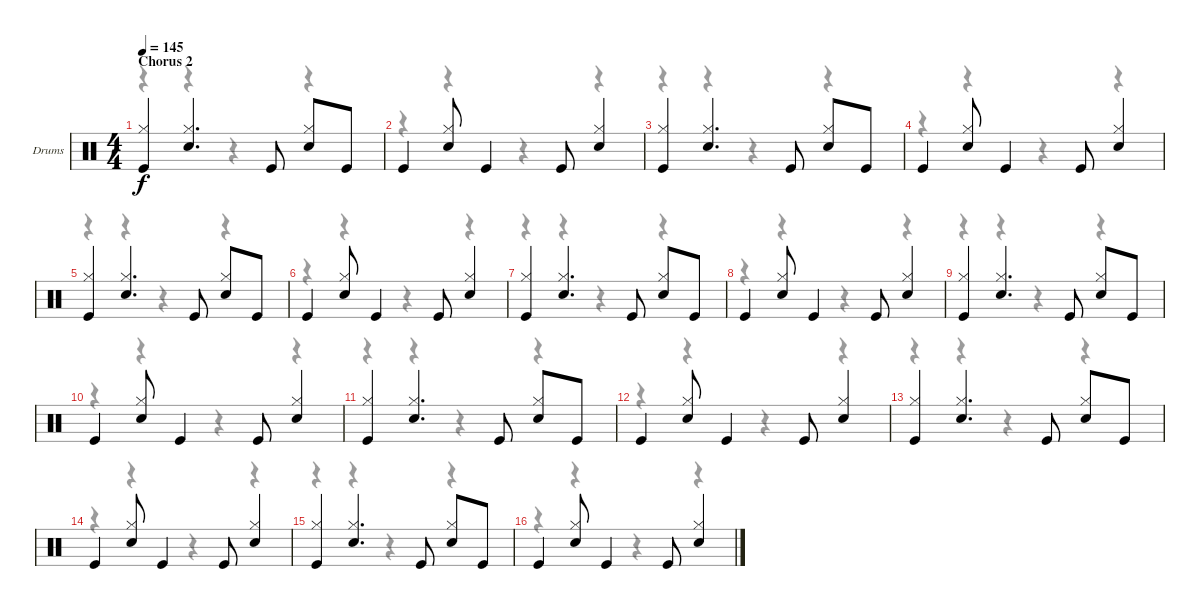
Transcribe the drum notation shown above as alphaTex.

\bracketExtendMode groupsimilarinstruments
\firstSystemTrackNameOrientation horizontal
\otherSystemsTrackNameOrientation horizontal
\track ("Drumkit" "Drums") {solo instrument percussion}
\staff {score}
\articulation defaults
\voice
\ts (4 4)
\section ("" "Chorus 2")
\tempo 145
\clef neutral
\ks c
("Kick (hit)" "Hi-Hat (closed)").4{dy f} ("Snare (hit) 2" "Hi-Hat (closed)").4{d} "Kick (hit)".8 ("Snare (hit) 2" "Hi-Hat (closed)").8 "Kick (hit)".8 |
"Kick (hit)".4 ("Snare (hit) 2" "Hi-Hat (closed)").8 "Kick (hit)".4 "Kick (hit)".8 ("Snare (hit) 2" "Hi-Hat (closed)").4 |
("Kick (hit)" "Hi-Hat (closed)").4 ("Snare (hit) 2" "Hi-Hat (closed)").4{d} "Kick (hit)".8 ("Snare (hit) 2" "Hi-Hat (closed)").8 "Kick (hit)".8 |
"Kick (hit)".4 ("Snare (hit) 2" "Hi-Hat (closed)").8 "Kick (hit)".4 "Kick (hit)".8 ("Snare (hit) 2" "Hi-Hat (closed)").4 |
("Kick (hit)" "Hi-Hat (closed)").4 ("Snare (hit) 2" "Hi-Hat (closed)").4{d} "Kick (hit)".8 ("Snare (hit) 2" "Hi-Hat (closed)").8 "Kick (hit)".8 |
"Kick (hit)".4 ("Snare (hit) 2" "Hi-Hat (closed)").8 "Kick (hit)".4 "Kick (hit)".8 ("Snare (hit) 2" "Hi-Hat (closed)").4 |
("Kick (hit)" "Hi-Hat (closed)").4 ("Snare (hit) 2" "Hi-Hat (closed)").4{d} "Kick (hit)".8 ("Snare (hit) 2" "Hi-Hat (closed)").8 "Kick (hit)".8 |
"Kick (hit)".4 ("Snare (hit) 2" "Hi-Hat (closed)").8 "Kick (hit)".4 "Kick (hit)".8 ("Snare (hit) 2" "Hi-Hat (closed)").4 |
("Kick (hit)" "Hi-Hat (closed)").4 ("Snare (hit) 2" "Hi-Hat (closed)").4{d} "Kick (hit)".8 ("Snare (hit) 2" "Hi-Hat (closed)").8 "Kick (hit)".8 |
"Kick (hit)".4 ("Snare (hit) 2" "Hi-Hat (closed)").8 "Kick (hit)".4 "Kick (hit)".8 ("Snare (hit) 2" "Hi-Hat (closed)").4 |
("Kick (hit)" "Hi-Hat (closed)").4 ("Snare (hit) 2" "Hi-Hat (closed)").4{d} "Kick (hit)".8 ("Snare (hit) 2" "Hi-Hat (closed)").8 "Kick (hit)".8 |
"Kick (hit)".4 ("Snare (hit) 2" "Hi-Hat (closed)").8 "Kick (hit)".4 "Kick (hit)".8 ("Snare (hit) 2" "Hi-Hat (closed)").4 |
("Kick (hit)" "Hi-Hat (closed)").4 ("Snare (hit) 2" "Hi-Hat (closed)").4{d} "Kick (hit)".8 ("Snare (hit) 2" "Hi-Hat (closed)").8 "Kick (hit)".8 |
"Kick (hit)".4 ("Snare (hit) 2" "Hi-Hat (closed)").8 "Kick (hit)".4 "Kick (hit)".8 ("Snare (hit) 2" "Hi-Hat (closed)").4 |
("Kick (hit)" "Hi-Hat (closed)").4 ("Snare (hit) 2" "Hi-Hat (closed)").4{d} "Kick (hit)".8 ("Snare (hit) 2" "Hi-Hat (closed)").8 "Kick (hit)".8 |
"Kick (hit)".4 ("Snare (hit) 2" "Hi-Hat (closed)").8 "Kick (hit)".4 "Kick (hit)".8 ("Snare (hit) 2" "Hi-Hat (closed)").4
\voice
\clef neutral
\ottava regular
\simile none
\ks c
r.4{dy mf} r.4 r.4 r.4 |
r.4 r.4 r.4 r.4 |
r.4 r.4 r.4 r.4 |
r.4 r.4 r.4 r.4 |
r.4 r.4 r.4 r.4 |
r.4 r.4 r.4 r.4 |
r.4 r.4 r.4 r.4 |
r.4 r.4 r.4 r.4 |
r.4 r.4 r.4 r.4 |
r.4 r.4 r.4 r.4 |
r.4 r.4 r.4 r.4 |
r.4 r.4 r.4 r.4 |
r.4 r.4 r.4 r.4 |
r.4 r.4 r.4 r.4 |
r.4 r.4 r.4 r.4 |
r.4 r.4 r.4 r.4
